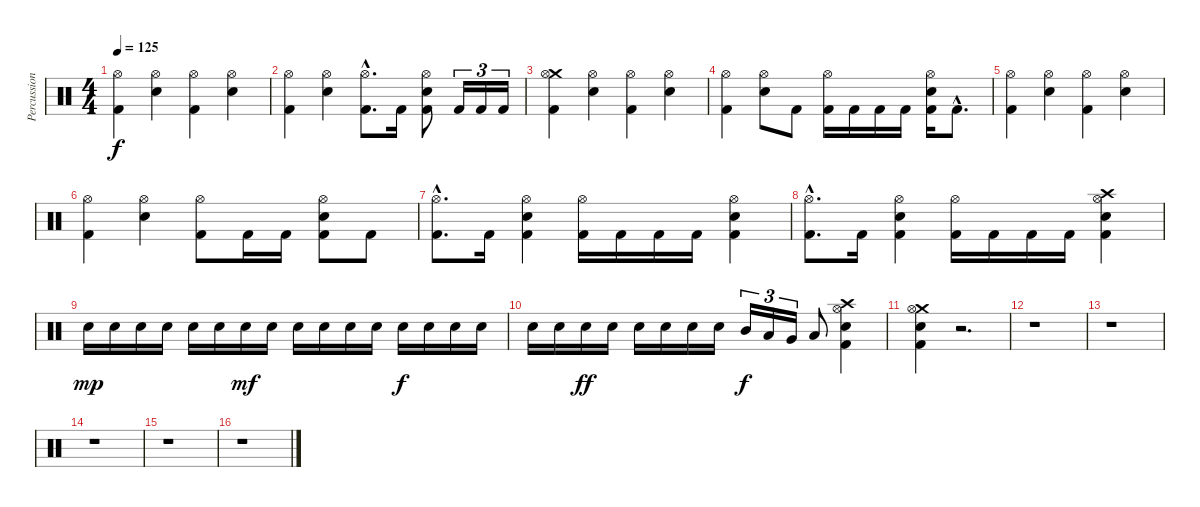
\track ("Percussion" "Percussion") {instrument percussion}
\staff {score}
\articulation defaults
\ts (4 4)
\tempo 125
\clef neutral
\ks c
("Hi-Hat (open)" "Kick (hit) 2").4{dy f} ("Hi-Hat (open)" "Electric Snare (hit)").4 ("Hi-Hat (open)" "Kick (hit) 2").4 ("Hi-Hat (open)" "Electric Snare (hit)").4 |
("Hi-Hat (open)" "Kick (hit) 2").4 ("Hi-Hat (open)" "Electric Snare (hit)").4 ("Hi-Hat (open)"{hac} "Kick (hit) 2"{hac}).8{d} "Kick (hit) 2".16 ("Hi-Hat (open)" "Electric Snare (hit)" "Kick (hit) 2").8 "Kick (hit) 2".16{tu (3 2)} "Kick (hit) 2".16{tu (3 2)} "Kick (hit) 2".16{tu (3 2)} |
("Crash medium (hit)" "Hi-Hat (open)" "Kick (hit) 2").4 ("Hi-Hat (open)" "Electric Snare (hit)").4 ("Hi-Hat (open)" "Kick (hit) 2").4 ("Hi-Hat (open)" "Electric Snare (hit)").4 |
("Hi-Hat (open)" "Kick (hit) 2").4 ("Hi-Hat (open)" "Electric Snare (hit)").8 "Kick (hit) 2".8 ("Hi-Hat (open)" "Kick (hit) 2").16 "Kick (hit) 2".16 "Kick (hit) 2".16 "Kick (hit) 2".16 ("Hi-Hat (open)" "Electric Snare (hit)" "Kick (hit) 2").16 "Kick (hit) 2"{hac}.8{d} |
("Hi-Hat (open)" "Kick (hit) 2").4 ("Hi-Hat (open)" "Electric Snare (hit)").4 ("Hi-Hat (open)" "Kick (hit) 2").4 ("Hi-Hat (open)" "Electric Snare (hit)").4 |
("Hi-Hat (open)" "Kick (hit) 2").4 ("Hi-Hat (open)" "Electric Snare (hit)").4 ("Hi-Hat (open)" "Kick (hit) 2").8 "Kick (hit) 2".16 "Kick (hit) 2".16 ("Hi-Hat (open)" "Electric Snare (hit)" "Kick (hit) 2").8 "Kick (hit) 2".8 |
("Hi-Hat (open)"{hac} "Kick (hit) 2"{hac}).8{d} "Kick (hit) 2".16 ("Hi-Hat (open)" "Electric Snare (hit)" "Kick (hit) 2").4 ("Hi-Hat (open)" "Kick (hit) 2").16 "Kick (hit) 2".16 "Kick (hit) 2".16 "Kick (hit) 2".16 ("Hi-Hat (open)" "Electric Snare (hit)" "Kick (hit) 2").4 |
("Hi-Hat (open)"{hac} "Kick (hit) 2"{hac}).8{d} "Kick (hit) 2".16 ("Hi-Hat (open)" "Electric Snare (hit)" "Kick (hit) 2").4 ("Hi-Hat (open)" "Kick (hit) 2").16 "Kick (hit) 2".16 "Kick (hit) 2".16 "Kick (hit) 2".16 ("Crash high (hit)" "Hi-Hat (open)" "Electric Snare (hit)" "Kick (hit) 2").4 |
"Electric Snare (hit)".16{dy mp} "Electric Snare (hit)".16 "Electric Snare (hit)".16 "Electric Snare (hit)".16 "Electric Snare (hit)".16 "Electric Snare (hit)".16 "Electric Snare (hit)".16{dy mf} "Electric Snare (hit)".16 "Electric Snare (hit)".16 "Electric Snare (hit)".16 "Electric Snare (hit)".16 "Electric Snare (hit)".16 "Electric Snare (hit)".16{dy f} "Electric Snare (hit)".16 "Electric Snare (hit)".16 "Electric Snare (hit)".16 |
"Electric Snare (hit)".16 "Electric Snare (hit)".16 "Electric Snare (hit)".16{dy ff} "Electric Snare (hit)".16 "Electric Snare (hit)".16 "Electric Snare (hit)".16 "Electric Snare (hit)".16 "Electric Snare (hit)".16 "Mid Tom (hit)".16{tu (3 2) dy f} "Low Tom (hit)".16{tu (3 2)} "Very Low Tom (hit)".16{tu (3 2)} "Low Floor Tom (hit)".8 ("Crash high (hit)" "Hi-Hat (open)" "Electric Snare (hit)" "Kick (hit) 2").4 |
("Crash medium (hit)" "Hi-Hat (open)" "Electric Snare (hit)" "Kick (hit) 2").4 r.2{d} |
r.1 |
r.1 |
r.1 |
r.1 |
r.1
